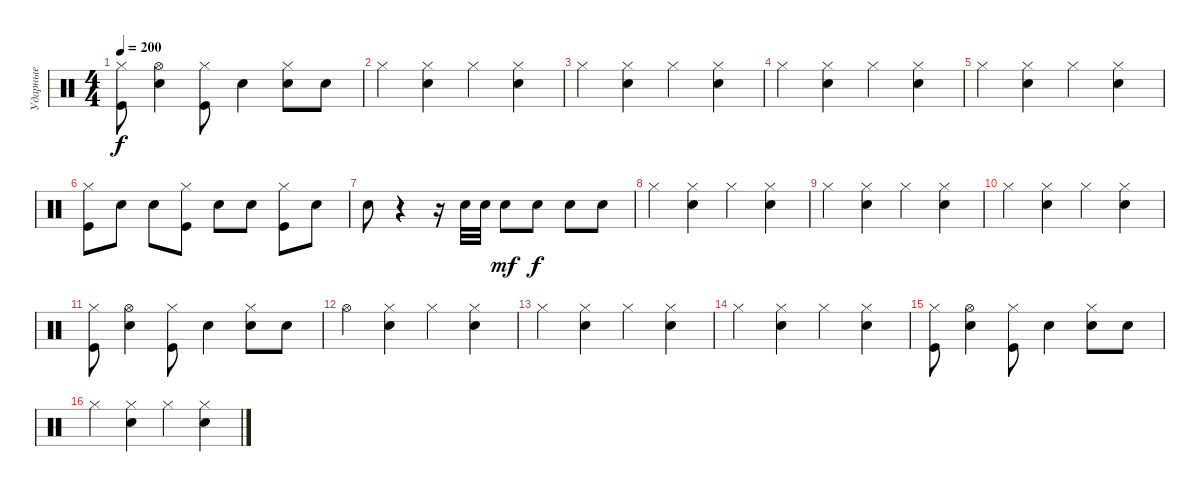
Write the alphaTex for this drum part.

\track ("Ударные" "Ударные") {instrument percussion}
\staff {score}
\articulation defaults
\ts (4 4)
\tempo 200
\clef neutral
\ks c
("Kick (hit)" "Hi-Hat (closed)").8{dy f} ("Hi-Hat (open)" "Electric Snare (hit)").4 ("Kick (hit)" "Hi-Hat (closed)").8 "Electric Snare (hit)".4 ("Electric Snare (hit)" "Hi-Hat (closed)").8 "Electric Snare (hit)".8 |
"Hi-Hat (closed)".4 ("Snare (hit) 2" "Hi-Hat (closed)").4 "Hi-Hat (closed)".4 ("Snare (hit) 2" "Hi-Hat (closed)").4 |
"Hi-Hat (closed)".4 ("Snare (hit) 2" "Hi-Hat (closed)").4 "Hi-Hat (closed)".4 ("Snare (hit) 2" "Hi-Hat (closed)").4 |
"Hi-Hat (closed)".4 ("Snare (hit) 2" "Hi-Hat (closed)").4 "Hi-Hat (closed)".4 ("Snare (hit) 2" "Hi-Hat (closed)").4 |
"Hi-Hat (closed)".4 ("Snare (hit) 2" "Hi-Hat (closed)").4 "Hi-Hat (closed)".4 ("Snare (hit) 2" "Hi-Hat (closed)").4 |
("Hi-Hat (closed)" "Kick (hit)").8 "Electric Snare (hit)".8 "Electric Snare (hit)".8 ("Hi-Hat (closed)" "Kick (hit)").8 "Electric Snare (hit)".8 "Electric Snare (hit)".8 ("Hi-Hat (closed)" "Kick (hit)").8 "Electric Snare (hit)".8 |
"Electric Snare (hit)".8 r.4 r.16 "Electric Snare (hit)".32 "Electric Snare (hit)".32 "Electric Snare (hit)".8{dy mf} "Electric Snare (hit)".8{dy f} "Electric Snare (hit)".8 "Electric Snare (hit)".8 |
"Hi-Hat (closed)".4 ("Snare (hit) 2" "Hi-Hat (closed)").4 "Hi-Hat (closed)".4 ("Snare (hit) 2" "Hi-Hat (closed)").4 |
"Hi-Hat (closed)".4 ("Snare (hit) 2" "Hi-Hat (closed)").4 "Hi-Hat (closed)".4 ("Snare (hit) 2" "Hi-Hat (closed)").4 |
"Hi-Hat (closed)".4 ("Snare (hit) 2" "Hi-Hat (closed)").4 "Hi-Hat (closed)".4 ("Snare (hit) 2" "Hi-Hat (closed)").4 |
("Kick (hit)" "Hi-Hat (closed)").8 ("Hi-Hat (open)" "Electric Snare (hit)").4 ("Kick (hit)" "Hi-Hat (closed)").8 "Electric Snare (hit)".4 ("Electric Snare (hit)" "Hi-Hat (closed)").8 "Electric Snare (hit)".8 |
"Hi-Hat (open)".4 ("Snare (hit) 2" "Hi-Hat (closed)").4 "Hi-Hat (closed)".4 ("Snare (hit) 2" "Hi-Hat (closed)").4 |
"Hi-Hat (closed)".4 ("Snare (hit) 2" "Hi-Hat (closed)").4 "Hi-Hat (closed)".4 ("Snare (hit) 2" "Hi-Hat (closed)").4 |
"Hi-Hat (closed)".4 ("Snare (hit) 2" "Hi-Hat (closed)").4 "Hi-Hat (closed)".4 ("Snare (hit) 2" "Hi-Hat (closed)").4 |
("Kick (hit)" "Hi-Hat (closed)").8 ("Hi-Hat (open)" "Electric Snare (hit)").4 ("Kick (hit)" "Hi-Hat (closed)").8 "Electric Snare (hit)".4 ("Electric Snare (hit)" "Hi-Hat (closed)").8 "Electric Snare (hit)".8 |
"Hi-Hat (closed)".4 ("Snare (hit) 2" "Hi-Hat (closed)").4 "Hi-Hat (closed)".4 ("Snare (hit) 2" "Hi-Hat (closed)").4
